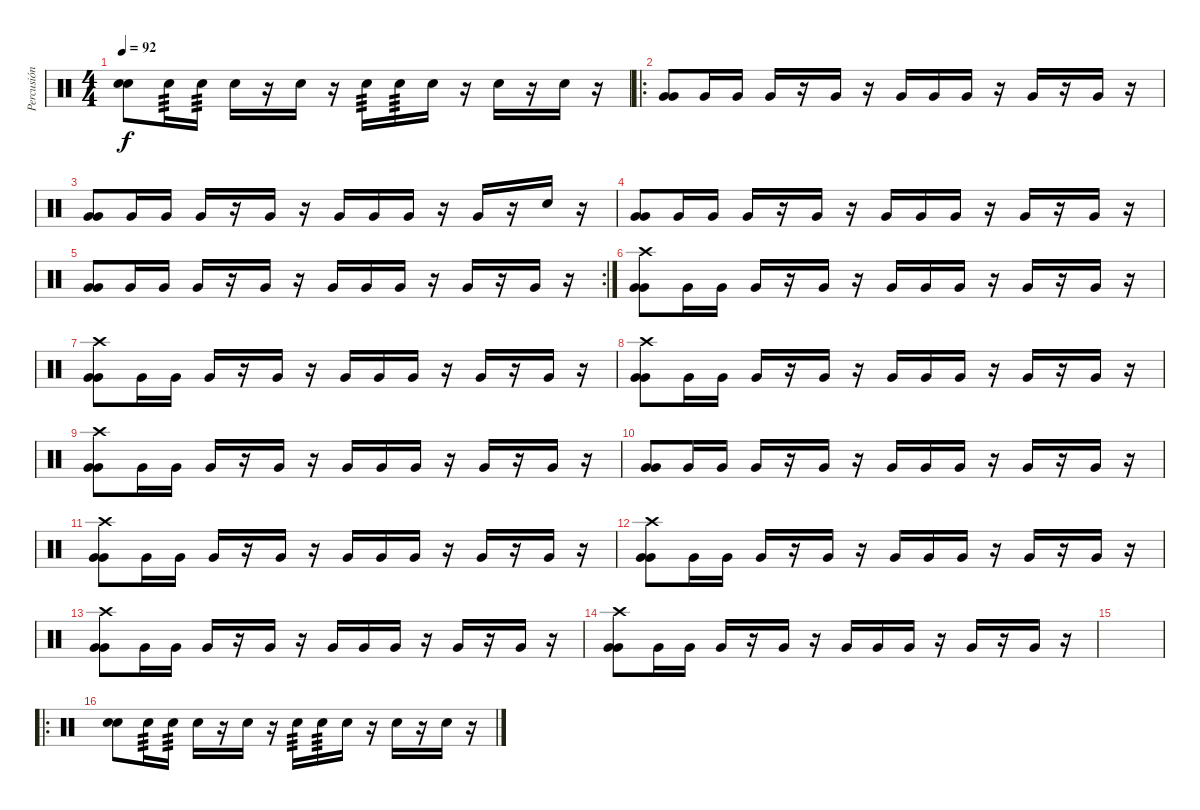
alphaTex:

\track ("Percusión" "Percusión") {instrument percussion}
\staff {score}
\articulation defaults
\ts (4 4)
\tempo 92
\clef neutral
\ks c
("Electric Snare (hit)" "Electric Snare (hit)").8{dy f} "Electric Snare (hit)".16{tp 3} "Electric Snare (hit)".16{tp 3} "Electric Snare (hit)".16 r.16 "Electric Snare (hit)".16 r.16 "Electric Snare (hit)".16{tp 3} "Electric Snare (hit)".16{tp 3} "Electric Snare (hit)".16 r.16 "Electric Snare (hit)".16 r.16 "Electric Snare (hit)".16 r.16 |
\ro
("Very Low Tom (hit)" "Very Low Tom (hit)").8 "Very Low Tom (hit)".16 "Very Low Tom (hit)".16 "Very Low Tom (hit)".16 r.16 "Very Low Tom (hit)".16 r.16 "Very Low Tom (hit)".16 "Very Low Tom (hit)".16 "Very Low Tom (hit)".16 r.16 "Very Low Tom (hit)".16 r.16 "Very Low Tom (hit)".16 r.16 |
("Very Low Tom (hit)" "Very Low Tom (hit)").8 "Very Low Tom (hit)".16 "Very Low Tom (hit)".16 "Very Low Tom (hit)".16 r.16 "Very Low Tom (hit)".16 r.16 "Very Low Tom (hit)".16 "Very Low Tom (hit)".16 "Very Low Tom (hit)".16 r.16 "Very Low Tom (hit)".16 r.16 "Electric Snare (hit)".16 r.16 |
("Very Low Tom (hit)" "Very Low Tom (hit)").8 "Very Low Tom (hit)".16 "Very Low Tom (hit)".16 "Very Low Tom (hit)".16 r.16 "Very Low Tom (hit)".16 r.16 "Very Low Tom (hit)".16 "Very Low Tom (hit)".16 "Very Low Tom (hit)".16 r.16 "Very Low Tom (hit)".16 r.16 "Very Low Tom (hit)".16 r.16 |
\rc 2
("Very Low Tom (hit)" "Very Low Tom (hit)").8 "Very Low Tom (hit)".16 "Very Low Tom (hit)".16 "Very Low Tom (hit)".16 r.16 "Very Low Tom (hit)".16 r.16 "Very Low Tom (hit)".16 "Very Low Tom (hit)".16 "Very Low Tom (hit)".16 r.16 "Very Low Tom (hit)".16 r.16 "Very Low Tom (hit)".16 r.16 |
("Crash high (hit)" "Very Low Tom (hit)" "Very Low Tom (hit)").8 "Very Low Tom (hit)".16 "Very Low Tom (hit)".16 "Very Low Tom (hit)".16 r.16 "Very Low Tom (hit)".16 r.16 "Very Low Tom (hit)".16 "Very Low Tom (hit)".16 "Very Low Tom (hit)".16 r.16 "Very Low Tom (hit)".16 r.16 "Very Low Tom (hit)".16 r.16 |
("Crash high (hit)" "Very Low Tom (hit)" "Very Low Tom (hit)").8 "Very Low Tom (hit)".16 "Very Low Tom (hit)".16 "Very Low Tom (hit)".16 r.16 "Very Low Tom (hit)".16 r.16 "Very Low Tom (hit)".16 "Very Low Tom (hit)".16 "Very Low Tom (hit)".16 r.16 "Very Low Tom (hit)".16 r.16 "Very Low Tom (hit)".16 r.16 |
("Crash high (hit)" "Very Low Tom (hit)" "Very Low Tom (hit)").8 "Very Low Tom (hit)".16 "Very Low Tom (hit)".16 "Very Low Tom (hit)".16 r.16 "Very Low Tom (hit)".16 r.16 "Very Low Tom (hit)".16 "Very Low Tom (hit)".16 "Very Low Tom (hit)".16 r.16 "Very Low Tom (hit)".16 r.16 "Very Low Tom (hit)".16 r.16 |
("Crash high (hit)" "Very Low Tom (hit)" "Very Low Tom (hit)").8 "Very Low Tom (hit)".16 "Very Low Tom (hit)".16 "Very Low Tom (hit)".16 r.16 "Very Low Tom (hit)".16 r.16 "Very Low Tom (hit)".16 "Very Low Tom (hit)".16 "Very Low Tom (hit)".16 r.16 "Very Low Tom (hit)".16 r.16 "Very Low Tom (hit)".16 r.16 |
("Very Low Tom (hit)" "Very Low Tom (hit)").8 "Very Low Tom (hit)".16 "Very Low Tom (hit)".16 "Very Low Tom (hit)".16 r.16 "Very Low Tom (hit)".16 r.16 "Very Low Tom (hit)".16 "Very Low Tom (hit)".16 "Very Low Tom (hit)".16 r.16 "Very Low Tom (hit)".16 r.16 "Very Low Tom (hit)".16 r.16 |
("Crash high (hit)" "Very Low Tom (hit)" "Very Low Tom (hit)").8 "Very Low Tom (hit)".16 "Very Low Tom (hit)".16 "Very Low Tom (hit)".16 r.16 "Very Low Tom (hit)".16 r.16 "Very Low Tom (hit)".16 "Very Low Tom (hit)".16 "Very Low Tom (hit)".16 r.16 "Very Low Tom (hit)".16 r.16 "Very Low Tom (hit)".16 r.16 |
("Crash high (hit)" "Very Low Tom (hit)" "Very Low Tom (hit)").8 "Very Low Tom (hit)".16 "Very Low Tom (hit)".16 "Very Low Tom (hit)".16 r.16 "Very Low Tom (hit)".16 r.16 "Very Low Tom (hit)".16 "Very Low Tom (hit)".16 "Very Low Tom (hit)".16 r.16 "Very Low Tom (hit)".16 r.16 "Very Low Tom (hit)".16 r.16 |
("Crash high (hit)" "Very Low Tom (hit)" "Very Low Tom (hit)").8 "Very Low Tom (hit)".16 "Very Low Tom (hit)".16 "Very Low Tom (hit)".16 r.16 "Very Low Tom (hit)".16 r.16 "Very Low Tom (hit)".16 "Very Low Tom (hit)".16 "Very Low Tom (hit)".16 r.16 "Very Low Tom (hit)".16 r.16 "Very Low Tom (hit)".16 r.16 |
("Crash high (hit)" "Very Low Tom (hit)" "Very Low Tom (hit)").8 "Very Low Tom (hit)".16 "Very Low Tom (hit)".16 "Very Low Tom (hit)".16 r.16 "Very Low Tom (hit)".16 r.16 "Very Low Tom (hit)".16 "Very Low Tom (hit)".16 "Very Low Tom (hit)".16 r.16 "Very Low Tom (hit)".16 r.16 "Very Low Tom (hit)".16 r.16 |
|
\ro
("Electric Snare (hit)" "Electric Snare (hit)").8{volume 6} "Electric Snare (hit)".16{tp 3} "Electric Snare (hit)".16{tp 3} "Electric Snare (hit)".16 r.16 "Electric Snare (hit)".16 r.16 "Electric Snare (hit)".16{tp 3} "Electric Snare (hit)".16{tp 3} "Electric Snare (hit)".16 r.16 "Electric Snare (hit)".16 r.16 "Electric Snare (hit)".16 r.16
